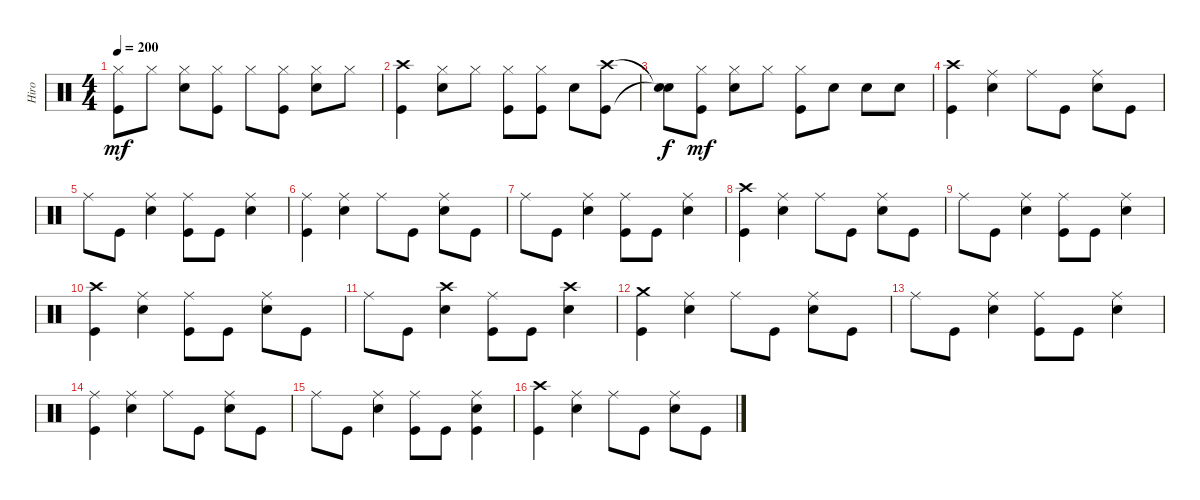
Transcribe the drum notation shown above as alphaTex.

\track ("Hiro" "Hiro") {instrument percussion}
\staff {score}
\articulation defaults
\ts (4 4)
\tempo 200
\clef neutral
\ks c
("Hi-Hat (closed)" "Kick (hit)").8{dy mf} "Hi-Hat (closed)".8 ("Hi-Hat (closed)" "Electric Snare (hit)").8 ("Hi-Hat (closed)" "Kick (hit)").8 "Hi-Hat (closed)".8 ("Hi-Hat (closed)" "Kick (hit)").8 ("Hi-Hat (closed)" "Electric Snare (hit)").8 "Hi-Hat (closed)".8 |
("Kick (hit)" "Crash high (hit)").4 ("Hi-Hat (closed)" "Electric Snare (hit)").8 "Hi-Hat (closed)".8 ("Hi-Hat (closed)" "Kick (hit)").8 ("Hi-Hat (closed)" "Kick (hit)").8 "Electric Snare (hit)".8 ("Crash high (hit)" "Kick (hit)").8 |
("Snare (hit)"{t} "Snare (hit)"{t}).8{dy f} ("Hi-Hat (closed)" "Kick (hit)").8{dy mf} ("Hi-Hat (closed)" "Electric Snare (hit)").8 "Hi-Hat (closed)".8 ("Hi-Hat (closed)" "Kick (hit)").8 "Electric Snare (hit)".8 "Electric Snare (hit)".8 "Electric Snare (hit)".8 |
("Crash high (hit)" "Kick (hit)").4 ("Electric Snare (hit)" "Ride (middle)").4 "Ride (middle)".8 "Kick (hit)".8 ("Electric Snare (hit)" "Ride (middle)").8 "Kick (hit)".8 |
"Ride (middle)".8 "Kick (hit)".8 ("Electric Snare (hit)" "Ride (middle)").4 ("Ride (middle)" "Kick (hit)").8 "Kick (hit)".8 ("Ride (middle)" "Electric Snare (hit)").4 |
("Ride (middle)" "Kick (hit)").4 ("Ride (middle)" "Electric Snare (hit)").4 "Ride (middle)".8 "Kick (hit)".8 ("Ride (middle)" "Electric Snare (hit)").8 "Kick (hit)".8 |
"Ride (middle)".8 "Kick (hit)".8 ("Electric Snare (hit)" "Ride (middle)").4 ("Kick (hit)" "Ride (middle)").8 "Kick (hit)".8 ("Electric Snare (hit)" "Ride (middle)").4 |
("Crash high (hit)" "Kick (hit)").4 ("Ride (middle)" "Electric Snare (hit)").4 "Ride (middle)".8 "Kick (hit)".8 ("Ride (middle)" "Electric Snare (hit)").8 "Kick (hit)".8 |
"Ride (middle)".8 "Kick (hit)".8 ("Electric Snare (hit)" "Ride (middle)").4 ("Ride (middle)" "Kick (hit)").8 "Kick (hit)".8 ("Ride (middle)" "Electric Snare (hit)").4 |
("Crash high (hit)" "Kick (hit)").4 ("Ride (middle)" "Electric Snare (hit)").4 ("Ride (middle)" "Kick (hit)").8 "Kick (hit)".8 ("Ride (middle)" "Electric Snare (hit)").8 "Kick (hit)".8 |
"Ride (middle)".8 "Kick (hit)".8 ("Electric Snare (hit)" "Crash high (hit)").4 ("Ride (middle)" "Kick (hit)").8 "Kick (hit)".8 ("Crash high (hit)" "Electric Snare (hit)").4 |
("Crash medium (hit)" "Kick (hit)").4 ("Electric Snare (hit)" "Ride (middle)").4 "Ride (middle)".8 "Kick (hit)".8 ("Electric Snare (hit)" "Ride (middle)").8 "Kick (hit)".8 |
"Ride (middle)".8 "Kick (hit)".8 ("Electric Snare (hit)" "Ride (middle)").4 ("Ride (middle)" "Kick (hit)").8 "Kick (hit)".8 ("Ride (middle)" "Electric Snare (hit)").4 |
("Ride (middle)" "Kick (hit)").4 ("Ride (middle)" "Electric Snare (hit)").4 "Ride (middle)".8 "Kick (hit)".8 ("Ride (middle)" "Electric Snare (hit)").8 "Kick (hit)".8 |
"Ride (middle)".8 "Kick (hit)".8 ("Electric Snare (hit)" "Ride (middle)").4 ("Kick (hit)" "Ride (middle)").8 "Kick (hit)".8 ("Kick (hit)" "Electric Snare (hit)" "Ride (middle)").4 |
("Crash high (hit)" "Kick (hit)").4 ("Ride (middle)" "Electric Snare (hit)").4 "Ride (middle)".8 "Kick (hit)".8 ("Ride (middle)" "Electric Snare (hit)").8 "Kick (hit)".8
